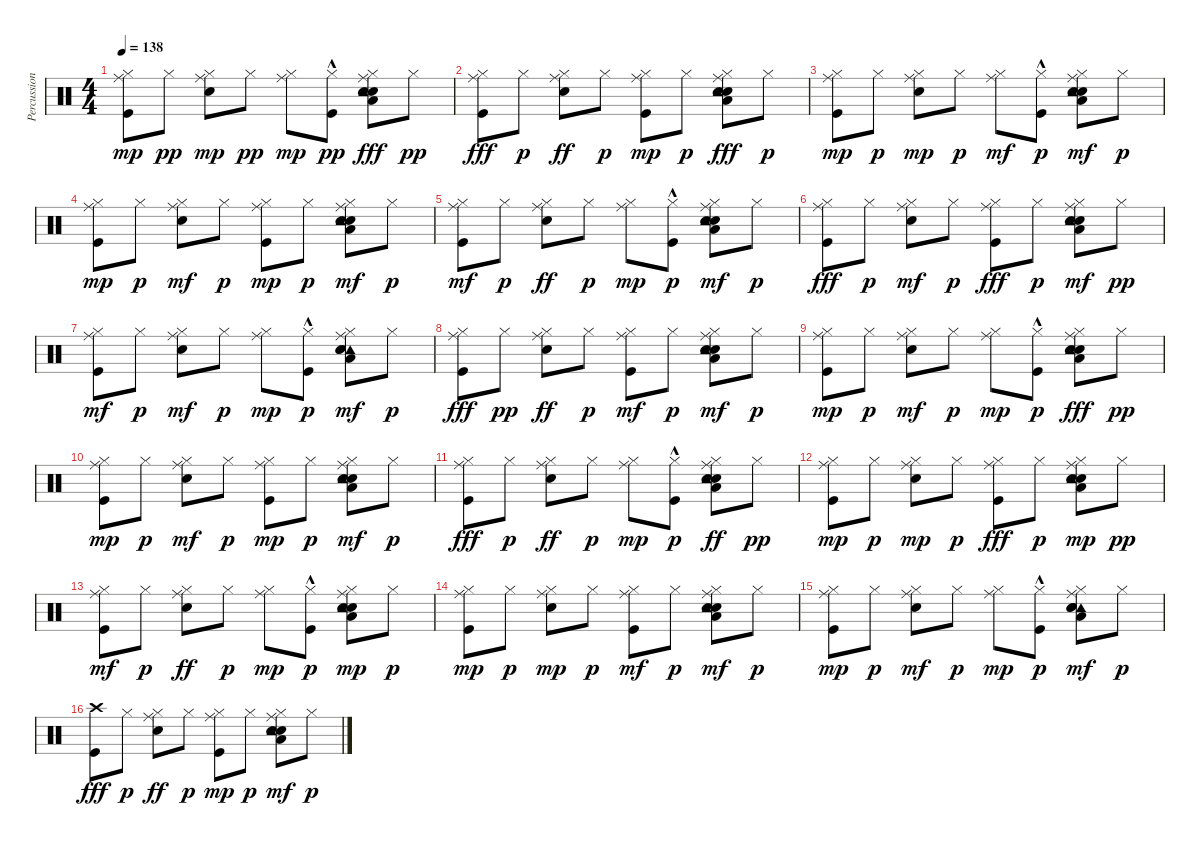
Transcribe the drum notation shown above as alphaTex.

\track ("Percussion" "Percussion") {instrument percussion}
\staff {score}
\articulation defaults
\ts (4 4)
\tempo 138
\clef neutral
\ks c
("Kick (hit)" "Hi-Hat (closed)" "Ride (middle)").8{dy mp} "Hi-Hat (closed)".8{dy pp} ("Electric Snare (hit)" "Hi-Hat (closed)" "Ride (middle)").8{dy mp} "Hi-Hat (closed)".8{dy pp} ("Hi-Hat (closed)" "Ride (middle)").8{dy mp} ("Kick (hit)"{hac} "Hi-Hat (closed)").8{dy pp} ("Hi-Hat (closed)" "Ride (middle)" "Hand Clap (hit)" "Low Floor Tom (hit)" "Snare (hit) 2" "Tambourine (hit)").8{dy fff} "Hi-Hat (closed)".8{dy pp} |
("Hi-Hat (closed)" "Ride (middle)" "Kick (hit)").8{dy fff} "Hi-Hat (closed)".8{dy p} ("Hi-Hat (closed)" "Ride (middle)" "Electric Snare (hit)").8{dy ff} "Hi-Hat (closed)".8{dy p} ("Kick (hit)" "Hi-Hat (closed)" "Ride (middle)").8{dy mp} "Hi-Hat (closed)".8{dy p} ("Hi-Hat (closed)" "Ride (middle)" "Hand Clap (hit)" "Snare (hit) 2" "Low Floor Tom (hit)" "Tambourine (hit)").8{dy fff} "Hi-Hat (closed)".8{dy p} |
("Kick (hit)" "Hi-Hat (closed)" "Ride (middle)").8{dy mp} "Hi-Hat (closed)".8{dy p} ("Electric Snare (hit)" "Hi-Hat (closed)" "Ride (middle)").8{dy mp} "Hi-Hat (closed)".8{dy p} ("Hi-Hat (closed)" "Ride (middle)").8{dy mf} ("Kick (hit)"{hac} "Hi-Hat (closed)").8{dy p} ("Snare (hit) 2" "Hand Clap (hit)" "Tambourine (hit)" "Low Floor Tom (hit)" "Hi-Hat (closed)" "Ride (middle)").8{dy mf} "Hi-Hat (closed)".8{dy p} |
("Kick (hit)" "Hi-Hat (closed)" "Ride (middle)").8{dy mp} "Hi-Hat (closed)".8{dy p} ("Electric Snare (hit)" "Hi-Hat (closed)" "Ride (middle)").8{dy mf} "Hi-Hat (closed)".8{dy p} ("Kick (hit)" "Hi-Hat (closed)" "Ride (middle)").8{dy mp} "Hi-Hat (closed)".8{dy p} ("Snare (hit) 2" "Hand Clap (hit)" "Low Floor Tom (hit)" "Tambourine (hit)" "Hi-Hat (closed)" "Ride (middle)").8{dy mf} "Hi-Hat (closed)".8{dy p} |
("Kick (hit)" "Hi-Hat (closed)" "Ride (middle)").8{dy mf} "Hi-Hat (closed)".8{dy p} ("Hi-Hat (closed)" "Ride (middle)" "Electric Snare (hit)").8{dy ff} "Hi-Hat (closed)".8{dy p} ("Hi-Hat (closed)" "Ride (middle)").8{dy mp} ("Kick (hit)"{hac} "Hi-Hat (closed)").8{dy p} ("Snare (hit) 2" "Hand Clap (hit)" "Tambourine (hit)" "Low Floor Tom (hit)" "Hi-Hat (closed)" "Ride (middle)").8{dy mf} "Hi-Hat (closed)".8{dy p} |
("Hi-Hat (closed)" "Ride (middle)" "Kick (hit)").8{dy fff} "Hi-Hat (closed)".8{dy p} ("Electric Snare (hit)" "Hi-Hat (closed)" "Ride (middle)").8{dy mf} "Hi-Hat (closed)".8{dy p} ("Hi-Hat (closed)" "Ride (middle)" "Kick (hit)").8{dy fff} "Hi-Hat (closed)".8{dy p} ("Hand Clap (hit)" "Snare (hit) 2" "Low Floor Tom (hit)" "Tambourine (hit)" "Hi-Hat (closed)" "Ride (middle)").8{dy mf} "Hi-Hat (closed)".8{dy pp} |
("Kick (hit)" "Hi-Hat (closed)" "Ride (middle)").8{dy mf} "Hi-Hat (closed)".8{dy p} ("Electric Snare (hit)" "Hi-Hat (closed)" "Ride (middle)").8{dy mf} "Hi-Hat (closed)".8{dy p} ("Hi-Hat (closed)" "Ride (middle)").8{dy mp} ("Kick (hit)"{hac} "Hi-Hat (closed)").8{dy p} ("Tambourine (hit)" "Hand Clap (hit)" "Low Floor Tom (hit)" "Snare (hit) 2" "Hi-Hat (closed)" "Ride (middle)").8{dy mf} "Hi-Hat (closed)".8{dy p} |
("Hi-Hat (closed)" "Ride (middle)" "Kick (hit)").8{dy fff} "Hi-Hat (closed)".8{dy pp} ("Hi-Hat (closed)" "Ride (middle)" "Electric Snare (hit)").8{dy ff} "Hi-Hat (closed)".8{dy p} ("Kick (hit)" "Hi-Hat (closed)" "Ride (middle)").8{dy mf} "Hi-Hat (closed)".8{dy p} ("Snare (hit) 2" "Tambourine (hit)" "Low Floor Tom (hit)" "Hand Clap (hit)" "Hi-Hat (closed)" "Ride (middle)").8{dy mf} "Hi-Hat (closed)".8{dy p} |
("Kick (hit)" "Hi-Hat (closed)" "Ride (middle)").8{dy mp} "Hi-Hat (closed)".8{dy p} ("Electric Snare (hit)" "Hi-Hat (closed)" "Ride (middle)").8{dy mf} "Hi-Hat (closed)".8{dy p} ("Hi-Hat (closed)" "Ride (middle)").8{dy mp} ("Kick (hit)"{hac} "Hi-Hat (closed)").8{dy p} ("Hi-Hat (closed)" "Ride (middle)" "Hand Clap (hit)" "Low Floor Tom (hit)" "Snare (hit) 2" "Tambourine (hit)").8{dy fff} "Hi-Hat (closed)".8{dy pp} |
("Kick (hit)" "Hi-Hat (closed)" "Ride (middle)").8{dy mp} "Hi-Hat (closed)".8{dy p} ("Electric Snare (hit)" "Hi-Hat (closed)" "Ride (middle)").8{dy mf} "Hi-Hat (closed)".8{dy p} ("Kick (hit)" "Hi-Hat (closed)" "Ride (middle)").8{dy mp} "Hi-Hat (closed)".8{dy p} ("Hand Clap (hit)" "Snare (hit) 2" "Low Floor Tom (hit)" "Tambourine (hit)" "Hi-Hat (closed)" "Ride (middle)").8{dy mf} "Hi-Hat (closed)".8{dy p} |
("Hi-Hat (closed)" "Ride (middle)" "Kick (hit)").8{dy fff} "Hi-Hat (closed)".8{dy p} ("Hi-Hat (closed)" "Ride (middle)" "Electric Snare (hit)").8{dy ff} "Hi-Hat (closed)".8{dy p} ("Hi-Hat (closed)" "Ride (middle)").8{dy mp} ("Kick (hit)"{hac} "Hi-Hat (closed)").8{dy p} ("Hi-Hat (closed)" "Ride (middle)" "Snare (hit) 2" "Hand Clap (hit)" "Tambourine (hit)" "Low Floor Tom (hit)").8{dy ff} "Hi-Hat (closed)".8{dy pp} |
("Hi-Hat (closed)" "Kick (hit)" "Ride (middle)").8{dy mp} "Hi-Hat (closed)".8{dy p} ("Electric Snare (hit)" "Ride (middle)" "Hi-Hat (closed)").8{dy mp} "Hi-Hat (closed)".8{dy p} ("Hi-Hat (closed)" "Ride (middle)" "Kick (hit)").8{dy fff} "Hi-Hat (closed)".8{dy p} ("Snare (hit) 2" "Hand Clap (hit)" "Low Floor Tom (hit)" "Tambourine (hit)" "Hi-Hat (closed)" "Ride (middle)").8{dy mp} "Hi-Hat (closed)".8{dy pp} |
("Ride (middle)" "Kick (hit)" "Hi-Hat (closed)").8{dy mf} "Hi-Hat (closed)".8{dy p} ("Hi-Hat (closed)" "Ride (middle)" "Electric Snare (hit)").8{dy ff} "Hi-Hat (closed)".8{dy p} ("Hi-Hat (closed)" "Ride (middle)").8{dy mp} ("Kick (hit)"{hac} "Hi-Hat (closed)").8{dy p} ("Snare (hit) 2" "Hand Clap (hit)" "Tambourine (hit)" "Low Floor Tom (hit)" "Hi-Hat (closed)" "Ride (middle)").8{dy mp} "Hi-Hat (closed)".8{dy p} |
("Hi-Hat (closed)" "Kick (hit)" "Ride (middle)").8{dy mp} "Hi-Hat (closed)".8{dy p} ("Electric Snare (hit)" "Hi-Hat (closed)" "Ride (middle)").8{dy mp} "Hi-Hat (closed)".8{dy p} ("Hi-Hat (closed)" "Kick (hit)" "Ride (middle)").8{dy mf} "Hi-Hat (closed)".8{dy p} ("Hand Clap (hit)" "Snare (hit) 2" "Low Floor Tom (hit)" "Tambourine (hit)" "Hi-Hat (closed)" "Ride (middle)").8{dy mf} "Hi-Hat (closed)".8{dy p} |
("Kick (hit)" "Hi-Hat (closed)" "Ride (middle)").8{dy mp} "Hi-Hat (closed)".8{dy p} ("Electric Snare (hit)" "Hi-Hat (closed)" "Ride (middle)").8{dy mf} "Hi-Hat (closed)".8{dy p} ("Hi-Hat (closed)" "Ride (middle)").8{dy mp} ("Kick (hit)"{hac} "Hi-Hat (closed)").8{dy p} ("Tambourine (hit)" "Hand Clap (hit)" "Low Floor Tom (hit)" "Snare (hit) 2" "Hi-Hat (closed)" "Ride (middle)").8{dy mf} "Hi-Hat (closed)".8{dy p} |
("Crash high (hit)" "Kick (hit)").8{dy fff} "Hi-Hat (closed)".8{dy p} ("Hi-Hat (closed)" "Ride (middle)" "Electric Snare (hit)").8{dy ff} "Hi-Hat (closed)".8{dy p} ("Kick (hit)" "Hi-Hat (closed)" "Ride (middle)").8{dy mp} "Hi-Hat (closed)".8{dy p} ("Snare (hit) 2" "Tambourine (hit)" "Low Floor Tom (hit)" "Hand Clap (hit)" "Hi-Hat (closed)" "Ride (middle)").8{dy mf} "Hi-Hat (closed)".8{dy p}
